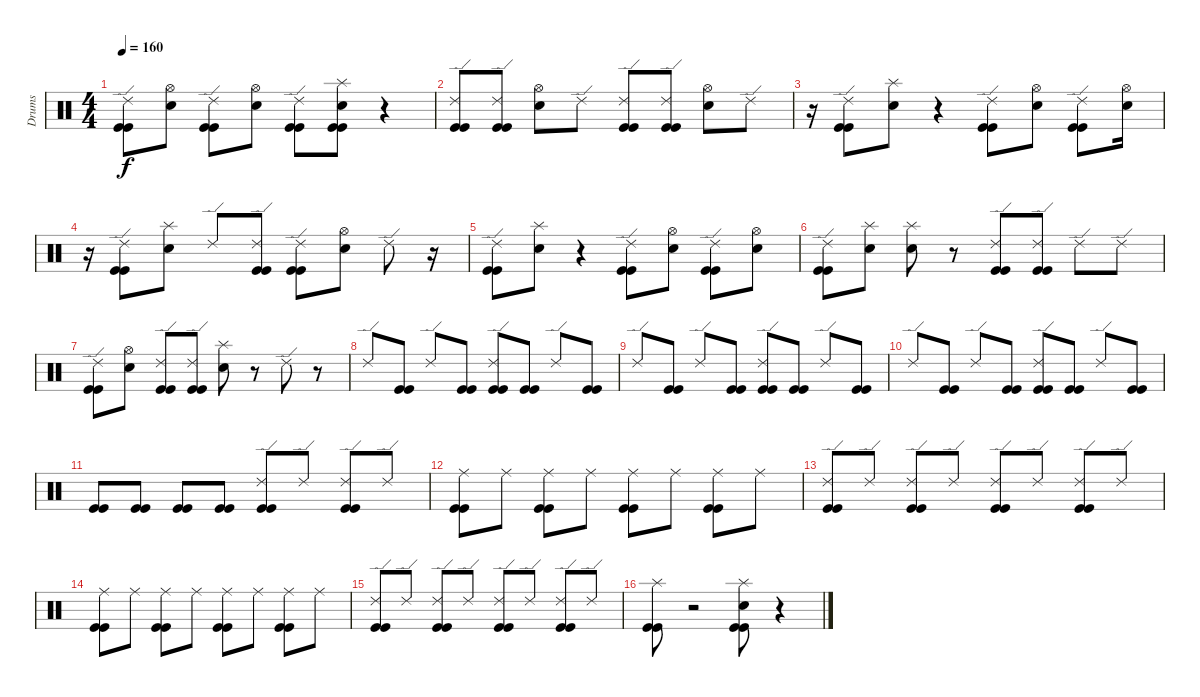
\track ("Drums" "Drums") {instrument percussion}
\staff {score}
\articulation defaults
\ts (4 4)
\tempo 160
\clef neutral
\ks c
("Ride (edge) 2" "Kick (hit)" "Kick (hit)").8{dy f} ("Hi-Hat (open)" "Snare (hit) 2").8 ("Ride (edge) 2" "Kick (hit)" "Kick (hit)").8 ("Hi-Hat (open)" "Snare (hit) 2").8 ("Ride (edge) 2" "Kick (hit)" "Kick (hit)").8 ("Splash (hit)" "Snare (hit) 2" "Kick (hit)" "Kick (hit)").8 r.4 |
("Ride (edge) 2" "Kick (hit)" "Kick (hit)").8 ("Ride (edge) 2" "Kick (hit)" "Kick (hit)").8 ("Hi-Hat (open)" "Snare (hit) 2").8 "Ride (edge) 2".8 ("Ride (edge) 2" "Kick (hit)" "Kick (hit)").8 ("Ride (edge) 2" "Kick (hit)" "Kick (hit)").8 ("Hi-Hat (open)" "Snare (hit) 2").8 "Ride (edge) 2".8 |
r.16 ("Ride (edge) 2" "Kick (hit)" "Kick (hit)").8 ("Splash (hit)" "Snare (hit) 2").8 r.4 ("Ride (edge) 2" "Kick (hit)" "Kick (hit)").8 ("Hi-Hat (open)" "Snare (hit) 2").8 ("Ride (edge) 2" "Kick (hit)" "Kick (hit)").8 ("Hi-Hat (open)" "Snare (hit) 2").16 |
r.16 ("Ride (edge) 2" "Kick (hit)" "Kick (hit)").8 ("Splash (hit)" "Snare (hit) 2").8 "Ride (edge) 2".8 ("Ride (edge) 2" "Kick (hit)" "Kick (hit)").8 ("Ride (edge) 2" "Kick (hit)" "Kick (hit)").8 ("Hi-Hat (open)" "Snare (hit) 2").8 "Ride (edge) 2".8 r.16 |
("Ride (edge) 2" "Kick (hit)" "Kick (hit)").8 ("Splash (hit)" "Snare (hit) 2").8 r.4 ("Ride (edge) 2" "Kick (hit)" "Kick (hit)").8 ("Hi-Hat (open)" "Snare (hit) 2").8 ("Ride (edge) 2" "Kick (hit)" "Kick (hit)").8 ("Hi-Hat (open)" "Snare (hit) 2").8 |
("Ride (edge) 2" "Kick (hit)" "Kick (hit)").8 ("Splash (hit)" "Snare (hit) 2").8 ("Splash (hit)" "Snare (hit) 2").8 r.8 ("Ride (edge) 2" "Kick (hit)" "Kick (hit)").8 ("Ride (edge) 2" "Kick (hit)" "Kick (hit)").8 "Ride (edge) 2".8 "Ride (edge) 2".8 |
("Ride (edge) 2" "Kick (hit)" "Kick (hit)").8 ("Hi-Hat (open)" "Snare (hit) 2").8 ("Ride (edge) 2" "Kick (hit)" "Kick (hit)").8 ("Ride (edge) 2" "Kick (hit)" "Kick (hit)").8 ("Splash (hit)" "Snare (hit) 2").8 r.8 "Ride (edge) 2".8 r.8 |
"Ride (edge) 2".8 ("Kick (hit)" "Kick (hit)").8 "Ride (edge) 2".8 ("Kick (hit)" "Kick (hit)").8 ("Ride (edge) 2" "Kick (hit)" "Kick (hit)").8 ("Kick (hit)" "Kick (hit)").8 "Ride (edge) 2".8 ("Kick (hit)" "Kick (hit)").8 |
"Ride (edge) 2".8 ("Kick (hit)" "Kick (hit)").8 "Ride (edge) 2".8 ("Kick (hit)" "Kick (hit)").8 ("Ride (edge) 2" "Kick (hit)" "Kick (hit)").8 ("Kick (hit)" "Kick (hit)").8 "Ride (edge) 2".8 ("Kick (hit)" "Kick (hit)").8 |
"Ride (edge) 2".8 ("Kick (hit)" "Kick (hit)").8 "Ride (edge) 2".8 ("Kick (hit)" "Kick (hit)").8 ("Ride (edge) 2" "Kick (hit)" "Kick (hit)").8 ("Kick (hit)" "Kick (hit)").8 "Ride (edge) 2".8 ("Kick (hit)" "Kick (hit)").8 |
("Kick (hit)" "Kick (hit)").8 ("Kick (hit)" "Kick (hit)").8 ("Kick (hit)" "Kick (hit)").8 ("Kick (hit)" "Kick (hit)").8 ("Ride (edge) 2" "Kick (hit)" "Kick (hit)").8 "Ride (edge) 2".8 ("Ride (edge) 2" "Kick (hit)" "Kick (hit)").8 "Ride (edge) 2".8 |
("Ride (middle)" "Kick (hit)" "Kick (hit)").8 "Ride (middle)".8 ("Ride (middle)" "Kick (hit)" "Kick (hit)").8 "Ride (middle)".8 ("Ride (middle)" "Kick (hit)" "Kick (hit)").8 "Ride (middle)".8 ("Ride (middle)" "Kick (hit)" "Kick (hit)").8 "Ride (middle)".8 |
("Ride (edge) 2" "Kick (hit)" "Kick (hit)").8 "Ride (edge) 2".8 ("Ride (edge) 2" "Kick (hit)" "Kick (hit)").8 "Ride (edge) 2".8 ("Ride (edge) 2" "Kick (hit)" "Kick (hit)").8 "Ride (edge) 2".8 ("Ride (edge) 2" "Kick (hit)" "Kick (hit)").8 "Ride (edge) 2".8 |
("Ride (middle)" "Kick (hit)" "Kick (hit)").8 "Ride (middle)".8 ("Ride (middle)" "Kick (hit)" "Kick (hit)").8 "Ride (middle)".8 ("Ride (middle)" "Kick (hit)" "Kick (hit)").8 "Ride (middle)".8 ("Ride (middle)" "Kick (hit)" "Kick (hit)").8 "Ride (middle)".8 |
("Ride (edge) 2" "Kick (hit)" "Kick (hit)").8 "Ride (edge) 2".8 ("Ride (edge) 2" "Kick (hit)" "Kick (hit)").8 "Ride (edge) 2".8 ("Ride (edge) 2" "Kick (hit)" "Kick (hit)").8 "Ride (edge) 2".8 ("Ride (edge) 2" "Kick (hit)" "Kick (hit)").8 "Ride (edge) 2".8 |
("Splash (hit)" "Kick (hit)" "Kick (hit)").8 r.2 ("Splash (hit)" "Snare (hit) 2" "Kick (hit)" "Kick (hit)").8 r.4
